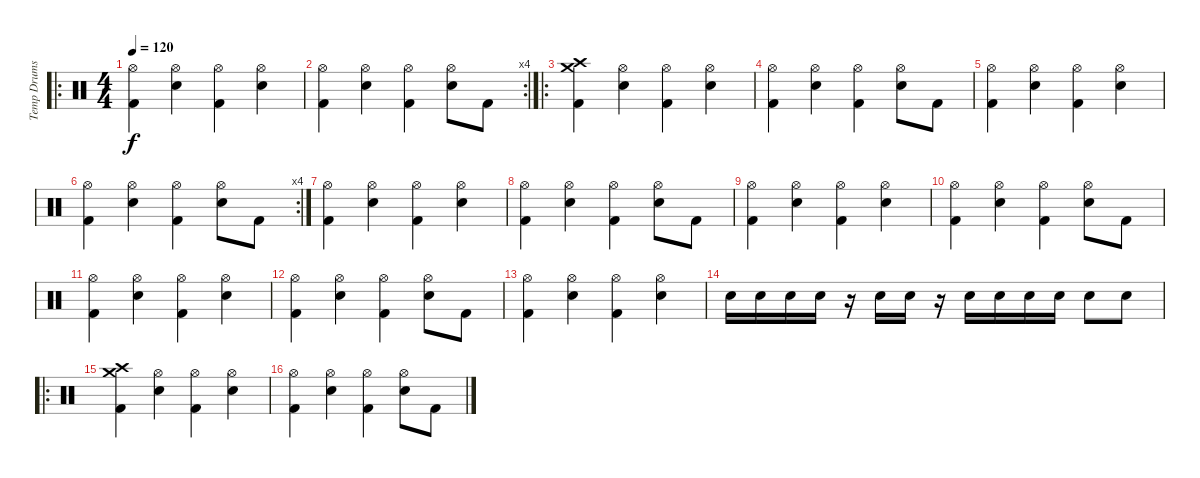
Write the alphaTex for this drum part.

\track ("Temp Drums (i dont know them!)" "Temp Drums") {instrument percussion}
\staff {score}
\articulation defaults
\ro
\ts (4 4)
\tempo 120
\clef neutral
\ks c
("Hi-Hat (open)" "Kick (hit) 2").4{dy f} ("Hi-Hat (open)" "Snare (hit) 2").4 ("Hi-Hat (open)" "Kick (hit) 2").4 ("Hi-Hat (open)" "Snare (hit) 2").4 |
\rc 4
("Hi-Hat (open)" "Kick (hit) 2").4 ("Hi-Hat (open)" "Snare (hit) 2").4 ("Hi-Hat (open)" "Kick (hit) 2").4 ("Hi-Hat (open)" "Snare (hit) 2").8 "Kick (hit) 2".8 |
\ro
("Crash medium (hit)" "Crash high (hit)" "Kick (hit) 2").4 ("Hi-Hat (open)" "Snare (hit) 2").4 ("Hi-Hat (open)" "Kick (hit) 2").4 ("Hi-Hat (open)" "Snare (hit) 2").4 |
("Hi-Hat (open)" "Kick (hit) 2").4 ("Hi-Hat (open)" "Snare (hit) 2").4 ("Hi-Hat (open)" "Kick (hit) 2").4 ("Hi-Hat (open)" "Snare (hit) 2").8 "Kick (hit) 2".8 |
("Hi-Hat (open)" "Kick (hit) 2").4 ("Hi-Hat (open)" "Snare (hit) 2").4 ("Hi-Hat (open)" "Kick (hit) 2").4 ("Hi-Hat (open)" "Snare (hit) 2").4 |
\rc 4
("Hi-Hat (open)" "Kick (hit) 2").4 ("Hi-Hat (open)" "Snare (hit) 2").4 ("Hi-Hat (open)" "Kick (hit) 2").4 ("Hi-Hat (open)" "Snare (hit) 2").8 "Kick (hit) 2".8 |
("Hi-Hat (open)" "Kick (hit) 2").4 ("Hi-Hat (open)" "Snare (hit) 2").4 ("Hi-Hat (open)" "Kick (hit) 2").4 ("Hi-Hat (open)" "Snare (hit) 2").4 |
("Hi-Hat (open)" "Kick (hit) 2").4 ("Hi-Hat (open)" "Snare (hit) 2").4 ("Hi-Hat (open)" "Kick (hit) 2").4 ("Hi-Hat (open)" "Snare (hit) 2").8 "Kick (hit) 2".8 |
("Hi-Hat (open)" "Kick (hit) 2").4 ("Hi-Hat (open)" "Snare (hit) 2").4 ("Hi-Hat (open)" "Kick (hit) 2").4 ("Hi-Hat (open)" "Snare (hit) 2").4 |
("Hi-Hat (open)" "Kick (hit) 2").4 ("Hi-Hat (open)" "Snare (hit) 2").4 ("Hi-Hat (open)" "Kick (hit) 2").4 ("Hi-Hat (open)" "Snare (hit) 2").8 "Kick (hit) 2".8 |
("Hi-Hat (open)" "Kick (hit) 2").4 ("Hi-Hat (open)" "Snare (hit) 2").4 ("Hi-Hat (open)" "Kick (hit) 2").4 ("Hi-Hat (open)" "Snare (hit) 2").4 |
("Hi-Hat (open)" "Kick (hit) 2").4 ("Hi-Hat (open)" "Snare (hit) 2").4 ("Hi-Hat (open)" "Kick (hit) 2").4 ("Hi-Hat (open)" "Snare (hit) 2").8 "Kick (hit) 2".8 |
("Hi-Hat (open)" "Kick (hit) 2").4 ("Hi-Hat (open)" "Snare (hit) 2").4 ("Hi-Hat (open)" "Kick (hit) 2").4 ("Hi-Hat (open)" "Snare (hit) 2").4 |
"Snare (hit) 2".16 "Snare (hit) 2".16 "Snare (hit) 2".16 "Snare (hit) 2".16 r.16 "Snare (hit) 2".16 "Snare (hit) 2".16 r.16 "Snare (hit) 2".16 "Snare (hit) 2".16 "Snare (hit) 2".16 "Snare (hit) 2".16 "Snare (hit) 2".8 "Snare (hit) 2".8 |
\ro
("Crash medium (hit)" "Crash high (hit)" "Kick (hit) 2").4 ("Hi-Hat (open)" "Snare (hit) 2").4 ("Hi-Hat (open)" "Kick (hit) 2").4 ("Hi-Hat (open)" "Snare (hit) 2").4 |
("Hi-Hat (open)" "Kick (hit) 2").4 ("Hi-Hat (open)" "Snare (hit) 2").4 ("Hi-Hat (open)" "Kick (hit) 2").4 ("Hi-Hat (open)" "Snare (hit) 2").8 "Kick (hit) 2".8
